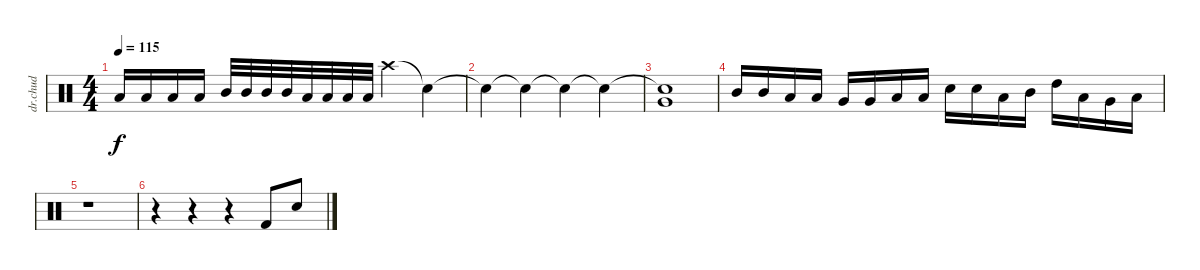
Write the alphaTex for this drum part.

\track ("dr.chud" "dr.chud") {instrument percussion}
\staff {score}
\articulation defaults
\ts (4 4)
\tempo 115
\clef neutral
\ks c "Low Tom (hit)".16{dy f} "Low Tom (hit)".16 "Low Tom (hit)".16 "Low Tom (hit)".16 "Mid Tom (hit)".32 "Mid Tom (hit)".32 "Mid Tom (hit)".32 "Mid Tom (hit)".32 "Low Tom (hit)".32 "Low Tom (hit)".32 "Low Tom (hit)".32 "Low Tom (hit)".32 "Crash high (hit)".4 "Snare (hit)"{t}.4
|
"Snare (hit)"{t}.4 "Snare (hit)"{t}.4 "Snare (hit)"{t}.4 "Snare (hit)"{t}.4 |
("Snare (hit)"{t} "Very Low Tom (hit)").1 |
"Mid Tom (hit)".16 "Mid Tom (hit)".16 "Low Tom (hit)".16 "Low Tom (hit)".16 "Very Low Tom (hit)".16 "Very Low Tom (hit)".16 "Low Floor Tom (hit)".16 "Low Floor Tom (hit)".16 "Electric Snare (hit)".16 "Electric Snare (hit)".16 "Low Tom (hit)".16 "Mid Tom (hit)".16 "High Tom (hit)".16 "Low Tom (hit)".16 "Very Low Tom (hit)".16 "Low Floor Tom (hit)".16 |
r.1 |
r.4 r.4 r.4 "Kick (hit) 2".8 "Electric Snare (hit)".8
